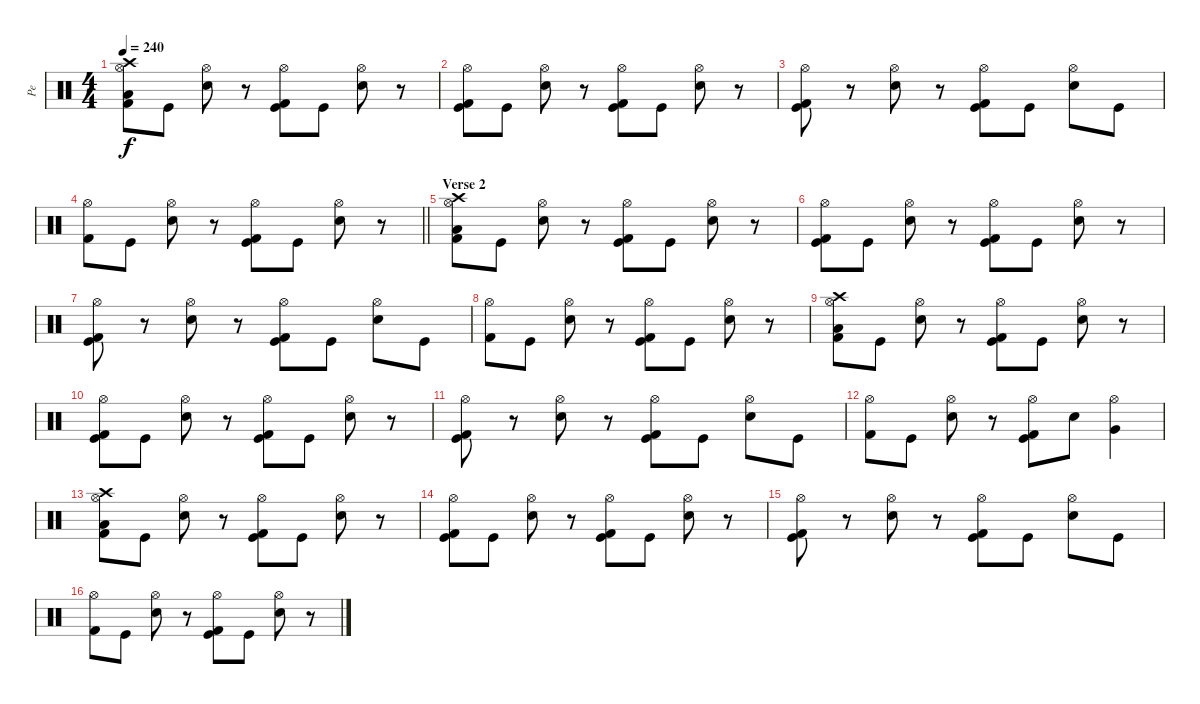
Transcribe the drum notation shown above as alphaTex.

\track ("Pe" "Pe") {instrument percussion}
\staff {score}
\articulation defaults
\ts (4 4)
\tempo 240
\clef neutral
\ks c
("Low Tom (hit)" "Hi-Hat (open)" "Kick (hit) 2" "Crash high (hit)").8{dy f} "Kick (hit)".8 ("Electric Snare (hit)" "Hi-Hat (open)").8 r.8 ("Kick (hit)" "Hi-Hat (open)" "Kick (hit) 2").8 "Kick (hit)".8 ("Electric Snare (hit)" "Hi-Hat (open)").8 r.8 |
("Kick (hit)" "Hi-Hat (open)" "Kick (hit) 2").8 "Kick (hit)".8 ("Electric Snare (hit)" "Hi-Hat (open)").8 r.8 ("Kick (hit)" "Hi-Hat (open)" "Kick (hit) 2").8 "Kick (hit)".8 ("Electric Snare (hit)" "Hi-Hat (open)").8 r.8 |
("Kick (hit)" "Hi-Hat (open)" "Kick (hit) 2").8 r.8 ("Electric Snare (hit)" "Hi-Hat (open)").8 r.8 ("Kick (hit)" "Hi-Hat (open)" "Kick (hit) 2").8 "Kick (hit)".8 ("Electric Snare (hit)" "Hi-Hat (open)").8 "Kick (hit)".8 |
\barLineRight lightlight
("Hi-Hat (open)" "Kick (hit) 2").8 "Kick (hit)".8 ("Electric Snare (hit)" "Hi-Hat (open)").8 r.8 ("Kick (hit)" "Hi-Hat (open)" "Kick (hit) 2").8 "Kick (hit)".8 ("Electric Snare (hit)" "Hi-Hat (open)").8 r.8 |
\section ("" "Verse 2")
("Low Tom (hit)" "Hi-Hat (open)" "Kick (hit) 2" "Crash high (hit)").8 "Kick (hit)".8 ("Electric Snare (hit)" "Hi-Hat (open)").8 r.8 ("Kick (hit)" "Hi-Hat (open)" "Kick (hit) 2").8 "Kick (hit)".8 ("Electric Snare (hit)" "Hi-Hat (open)").8 r.8 |
("Kick (hit)" "Hi-Hat (open)" "Kick (hit) 2").8 "Kick (hit)".8 ("Electric Snare (hit)" "Hi-Hat (open)").8 r.8 ("Kick (hit)" "Hi-Hat (open)" "Kick (hit) 2").8 "Kick (hit)".8 ("Electric Snare (hit)" "Hi-Hat (open)").8 r.8 |
("Kick (hit)" "Hi-Hat (open)" "Kick (hit) 2").8 r.8 ("Electric Snare (hit)" "Hi-Hat (open)").8 r.8 ("Kick (hit)" "Hi-Hat (open)" "Kick (hit) 2").8 "Kick (hit)".8 ("Electric Snare (hit)" "Hi-Hat (open)").8 "Kick (hit)".8 |
("Hi-Hat (open)" "Kick (hit) 2").8 "Kick (hit)".8 ("Electric Snare (hit)" "Hi-Hat (open)").8 r.8 ("Kick (hit)" "Hi-Hat (open)" "Kick (hit) 2").8 "Kick (hit)".8 ("Electric Snare (hit)" "Hi-Hat (open)").8 r.8 |
("Low Tom (hit)" "Hi-Hat (open)" "Kick (hit) 2" "Crash high (hit)").8 "Kick (hit)".8 ("Electric Snare (hit)" "Hi-Hat (open)").8 r.8 ("Kick (hit)" "Hi-Hat (open)" "Kick (hit) 2").8 "Kick (hit)".8 ("Electric Snare (hit)" "Hi-Hat (open)").8 r.8 |
("Kick (hit)" "Hi-Hat (open)" "Kick (hit) 2").8 "Kick (hit)".8 ("Electric Snare (hit)" "Hi-Hat (open)").8 r.8 ("Kick (hit)" "Hi-Hat (open)" "Kick (hit) 2").8 "Kick (hit)".8 ("Electric Snare (hit)" "Hi-Hat (open)").8 r.8 |
("Kick (hit)" "Hi-Hat (open)" "Kick (hit) 2").8 r.8 ("Electric Snare (hit)" "Hi-Hat (open)").8 r.8 ("Kick (hit)" "Hi-Hat (open)" "Kick (hit) 2").8 "Kick (hit)".8 ("Electric Snare (hit)" "Hi-Hat (open)").8 "Kick (hit)".8 |
("Hi-Hat (open)" "Kick (hit) 2").8 "Kick (hit)".8 ("Electric Snare (hit)" "Hi-Hat (open)").8 r.8 ("Kick (hit)" "Hi-Hat (open)" "Kick (hit) 2").8 "Electric Snare (hit)".8 ("Very Low Tom (hit)" "Hi-Hat (open)").4 |
("Low Tom (hit)" "Hi-Hat (open)" "Kick (hit) 2" "Crash high (hit)").8 "Kick (hit)".8 ("Electric Snare (hit)" "Hi-Hat (open)").8 r.8 ("Kick (hit)" "Hi-Hat (open)" "Kick (hit) 2").8 "Kick (hit)".8 ("Electric Snare (hit)" "Hi-Hat (open)").8 r.8 |
("Kick (hit)" "Hi-Hat (open)" "Kick (hit) 2").8 "Kick (hit)".8 ("Electric Snare (hit)" "Hi-Hat (open)").8 r.8 ("Kick (hit)" "Hi-Hat (open)" "Kick (hit) 2").8 "Kick (hit)".8 ("Electric Snare (hit)" "Hi-Hat (open)").8 r.8 |
("Kick (hit)" "Hi-Hat (open)" "Kick (hit) 2").8 r.8 ("Electric Snare (hit)" "Hi-Hat (open)").8 r.8 ("Kick (hit)" "Hi-Hat (open)" "Kick (hit) 2").8 "Kick (hit)".8 ("Electric Snare (hit)" "Hi-Hat (open)").8 "Kick (hit)".8 |
("Hi-Hat (open)" "Kick (hit) 2").8 "Kick (hit)".8 ("Electric Snare (hit)" "Hi-Hat (open)").8 r.8 ("Kick (hit)" "Hi-Hat (open)" "Kick (hit) 2").8 "Kick (hit)".8 ("Electric Snare (hit)" "Hi-Hat (open)").8 r.8
